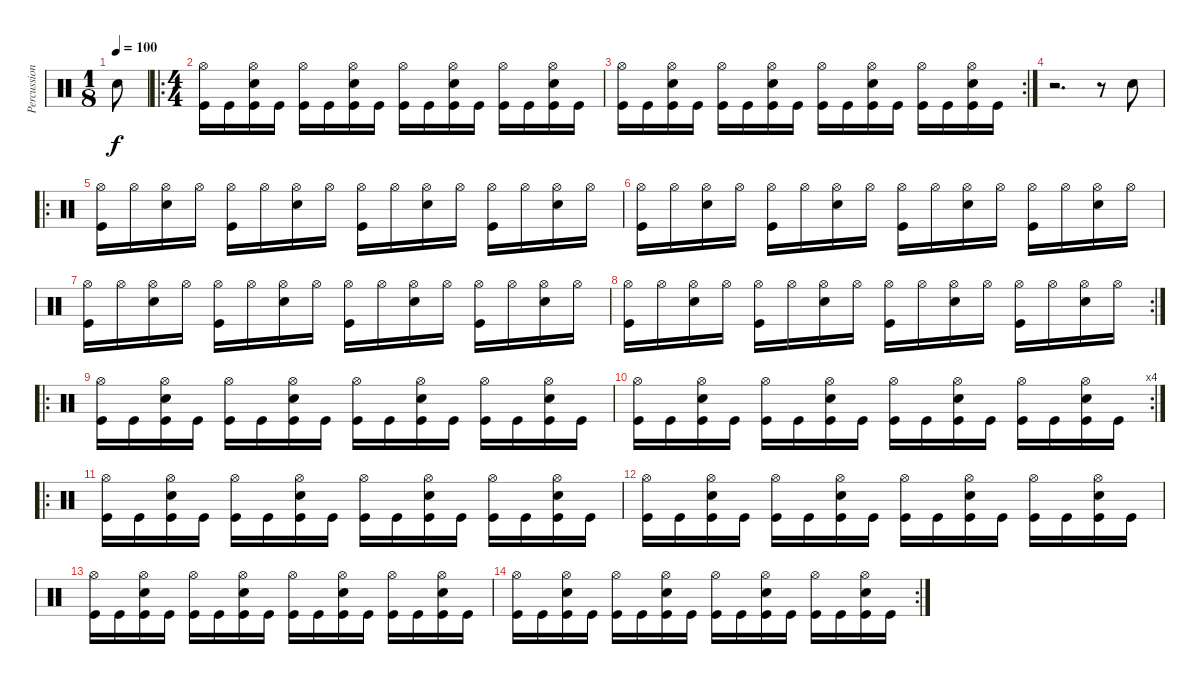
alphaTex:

\track ("Percussion" "Percussion") {instrument percussion}
\staff {score}
\articulation defaults
\ts (1 8)
\tempo 100
\clef neutral
\ks c "Snare (hit) 2".8{dy f}
|
\ro
\ts (4 4)
("Hi-Hat (open)" "Kick (hit)").16 "Kick (hit)".16 ("Hi-Hat (open)" "Snare (hit) 2" "Kick (hit)").16 "Kick (hit)".16 ("Hi-Hat (open)" "Kick (hit)").16 "Kick (hit)".16 ("Hi-Hat (open)" "Snare (hit) 2" "Kick (hit)").16 "Kick (hit)".16 ("Hi-Hat (open)" "Kick (hit)").16 "Kick (hit)".16 ("Hi-Hat (open)" "Snare (hit) 2" "Kick (hit)").16 "Kick (hit)".16 ("Hi-Hat (open)" "Kick (hit)").16 "Kick (hit)".16 ("Hi-Hat (open)" "Snare (hit) 2" "Kick (hit)").16 "Kick (hit)".16 |
\rc 2
("Hi-Hat (open)" "Kick (hit)").16 "Kick (hit)".16 ("Hi-Hat (open)" "Snare (hit) 2" "Kick (hit)").16 "Kick (hit)".16 ("Hi-Hat (open)" "Kick (hit)").16 "Kick (hit)".16 ("Hi-Hat (open)" "Snare (hit) 2" "Kick (hit)").16 "Kick (hit)".16 ("Hi-Hat (open)" "Kick (hit)").16 "Kick (hit)".16 ("Hi-Hat (open)" "Snare (hit) 2" "Kick (hit)").16 "Kick (hit)".16 ("Hi-Hat (open)" "Kick (hit)").16 "Kick (hit)".16 ("Hi-Hat (open)" "Snare (hit) 2" "Kick (hit)").16 "Kick (hit)".16 |
r.2{d} r.8 "Snare (hit) 2".8 |
\ro
("Hi-Hat (open)" "Kick (hit)").16 "Hi-Hat (open)".16 ("Hi-Hat (open)" "Snare (hit) 2").16 "Hi-Hat (open)".16 ("Hi-Hat (open)" "Kick (hit)").16 "Hi-Hat (open)".16 ("Hi-Hat (open)" "Snare (hit) 2").16 "Hi-Hat (open)".16 ("Hi-Hat (open)" "Kick (hit)").16 "Hi-Hat (open)".16 ("Hi-Hat (open)" "Snare (hit) 2").16 "Hi-Hat (open)".16 ("Hi-Hat (open)" "Kick (hit)").16 "Hi-Hat (open)".16 ("Hi-Hat (open)" "Snare (hit) 2").16 "Hi-Hat (open)".16 |
("Hi-Hat (open)" "Kick (hit)").16 "Hi-Hat (open)".16 ("Hi-Hat (open)" "Snare (hit) 2").16 "Hi-Hat (open)".16 ("Hi-Hat (open)" "Kick (hit)").16 "Hi-Hat (open)".16 ("Hi-Hat (open)" "Snare (hit) 2").16 "Hi-Hat (open)".16 ("Hi-Hat (open)" "Kick (hit)").16 "Hi-Hat (open)".16 ("Hi-Hat (open)" "Snare (hit) 2").16 "Hi-Hat (open)".16 ("Hi-Hat (open)" "Kick (hit)").16 "Hi-Hat (open)".16 ("Hi-Hat (open)" "Snare (hit) 2").16 "Hi-Hat (open)".16 |
("Hi-Hat (open)" "Kick (hit)").16 "Hi-Hat (open)".16 ("Hi-Hat (open)" "Snare (hit) 2").16 "Hi-Hat (open)".16 ("Hi-Hat (open)" "Kick (hit)").16 "Hi-Hat (open)".16 ("Hi-Hat (open)" "Snare (hit) 2").16 "Hi-Hat (open)".16 ("Hi-Hat (open)" "Kick (hit)").16 "Hi-Hat (open)".16 ("Hi-Hat (open)" "Snare (hit) 2").16 "Hi-Hat (open)".16 ("Hi-Hat (open)" "Kick (hit)").16 "Hi-Hat (open)".16 ("Hi-Hat (open)" "Snare (hit) 2").16 "Hi-Hat (open)".16 |
\rc 2
("Hi-Hat (open)" "Kick (hit)").16 "Hi-Hat (open)".16 ("Hi-Hat (open)" "Snare (hit) 2").16 "Hi-Hat (open)".16 ("Hi-Hat (open)" "Kick (hit)").16 "Hi-Hat (open)".16 ("Hi-Hat (open)" "Snare (hit) 2").16 "Hi-Hat (open)".16 ("Hi-Hat (open)" "Kick (hit)").16 "Hi-Hat (open)".16 ("Hi-Hat (open)" "Snare (hit) 2").16 "Hi-Hat (open)".16 ("Hi-Hat (open)" "Kick (hit)").16 "Hi-Hat (open)".16 ("Hi-Hat (open)" "Snare (hit) 2").16 "Hi-Hat (open)".16 |
\ro
("Hi-Hat (open)" "Kick (hit)").16 "Kick (hit)".16 ("Hi-Hat (open)" "Snare (hit) 2" "Kick (hit)").16 "Kick (hit)".16 ("Hi-Hat (open)" "Kick (hit)").16 "Kick (hit)".16 ("Hi-Hat (open)" "Snare (hit) 2" "Kick (hit)").16 "Kick (hit)".16 ("Hi-Hat (open)" "Kick (hit)").16 "Kick (hit)".16 ("Hi-Hat (open)" "Snare (hit) 2" "Kick (hit)").16 "Kick (hit)".16 ("Hi-Hat (open)" "Kick (hit)").16 "Kick (hit)".16 ("Hi-Hat (open)" "Snare (hit) 2" "Kick (hit)").16 "Kick (hit)".16 |
\rc 4
("Hi-Hat (open)" "Kick (hit)").16 "Kick (hit)".16 ("Hi-Hat (open)" "Snare (hit) 2" "Kick (hit)").16 "Kick (hit)".16 ("Hi-Hat (open)" "Kick (hit)").16 "Kick (hit)".16 ("Hi-Hat (open)" "Snare (hit) 2" "Kick (hit)").16 "Kick (hit)".16 ("Hi-Hat (open)" "Kick (hit)").16 "Kick (hit)".16 ("Hi-Hat (open)" "Snare (hit) 2" "Kick (hit)").16 "Kick (hit)".16 ("Hi-Hat (open)" "Kick (hit)").16 "Kick (hit)".16 ("Hi-Hat (open)" "Snare (hit) 2" "Kick (hit)").16 "Kick (hit)".16 |
\ro
("Hi-Hat (open)" "Kick (hit)").16 "Kick (hit)".16 ("Hi-Hat (open)" "Snare (hit) 2" "Kick (hit)").16 "Kick (hit)".16 ("Hi-Hat (open)" "Kick (hit)").16 "Kick (hit)".16 ("Hi-Hat (open)" "Snare (hit) 2" "Kick (hit)").16 "Kick (hit)".16 ("Hi-Hat (open)" "Kick (hit)").16 "Kick (hit)".16 ("Hi-Hat (open)" "Snare (hit) 2" "Kick (hit)").16 "Kick (hit)".16 ("Hi-Hat (open)" "Kick (hit)").16 "Kick (hit)".16 ("Hi-Hat (open)" "Snare (hit) 2" "Kick (hit)").16 "Kick (hit)".16 |
("Hi-Hat (open)" "Kick (hit)").16 "Kick (hit)".16 ("Hi-Hat (open)" "Snare (hit) 2" "Kick (hit)").16 "Kick (hit)".16 ("Hi-Hat (open)" "Kick (hit)").16 "Kick (hit)".16 ("Hi-Hat (open)" "Snare (hit) 2" "Kick (hit)").16 "Kick (hit)".16 ("Hi-Hat (open)" "Kick (hit)").16 "Kick (hit)".16 ("Hi-Hat (open)" "Snare (hit) 2" "Kick (hit)").16 "Kick (hit)".16 ("Hi-Hat (open)" "Kick (hit)").16 "Kick (hit)".16 ("Hi-Hat (open)" "Snare (hit) 2" "Kick (hit)").16 "Kick (hit)".16 |
("Hi-Hat (open)" "Kick (hit)").16 "Kick (hit)".16 ("Hi-Hat (open)" "Snare (hit) 2" "Kick (hit)").16 "Kick (hit)".16 ("Hi-Hat (open)" "Kick (hit)").16 "Kick (hit)".16 ("Hi-Hat (open)" "Snare (hit) 2" "Kick (hit)").16 "Kick (hit)".16 ("Hi-Hat (open)" "Kick (hit)").16 "Kick (hit)".16 ("Hi-Hat (open)" "Snare (hit) 2" "Kick (hit)").16 "Kick (hit)".16 ("Hi-Hat (open)" "Kick (hit)").16 "Kick (hit)".16 ("Hi-Hat (open)" "Snare (hit) 2" "Kick (hit)").16 "Kick (hit)".16 |
\rc 2
("Hi-Hat (open)" "Kick (hit)").16 "Kick (hit)".16 ("Hi-Hat (open)" "Snare (hit) 2" "Kick (hit)").16 "Kick (hit)".16 ("Hi-Hat (open)" "Kick (hit)").16 "Kick (hit)".16 ("Hi-Hat (open)" "Snare (hit) 2" "Kick (hit)").16 "Kick (hit)".16 ("Hi-Hat (open)" "Kick (hit)").16 "Kick (hit)".16 ("Hi-Hat (open)" "Snare (hit) 2" "Kick (hit)").16 "Kick (hit)".16 ("Hi-Hat (open)" "Kick (hit)").16 "Kick (hit)".16 ("Hi-Hat (open)" "Snare (hit) 2" "Kick (hit)").16 "Kick (hit)".16
